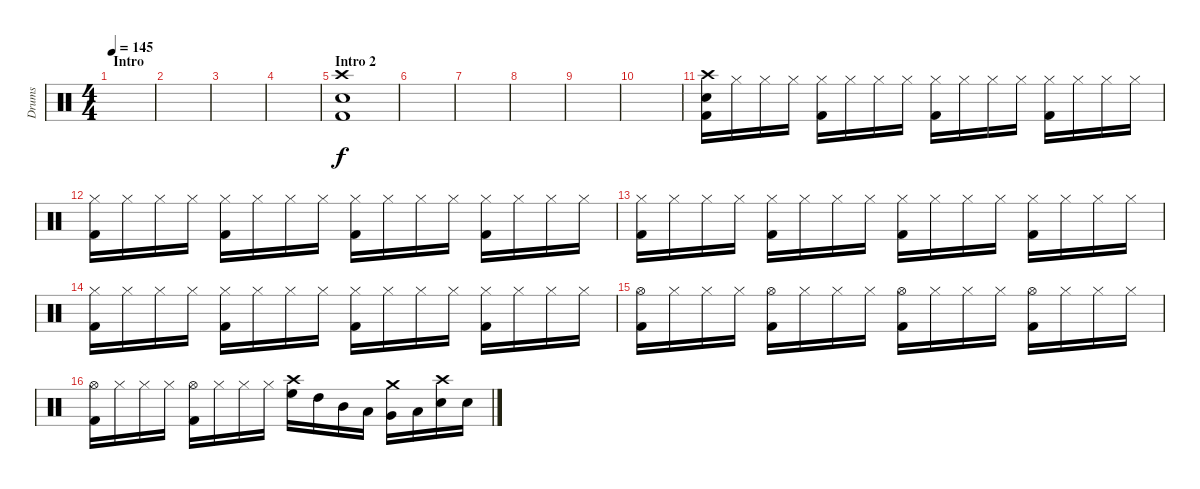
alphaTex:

\track ("Drums" "Drums") {instrument percussion}
\staff {score}
\articulation defaults
\ts (4 4)
\section ("" "Intro")
\tempo 145
\tempo 120
\tempo 145
\clef neutral
\ks c
|
|
|
|
\section ("" "Intro 2")
("Crash high (hit)" "Electric Snare (hit)" "Kick (hit) 2").1 |
|
|
|
|
|
("Crash high (hit)" "Electric Snare (hit)" "Kick (hit) 2").16 "Hi-Hat (closed)".16 "Hi-Hat (closed)".16 "Hi-Hat (closed)".16 ("Hi-Hat (closed)" "Kick (hit) 2").16 "Hi-Hat (closed)".16 "Hi-Hat (closed)".16 "Hi-Hat (closed)".16 ("Hi-Hat (closed)" "Kick (hit) 2").16 "Hi-Hat (closed)".16 "Hi-Hat (closed)".16 "Hi-Hat (closed)".16 ("Hi-Hat (closed)" "Kick (hit) 2").16 "Hi-Hat (closed)".16 "Hi-Hat (closed)".16 "Hi-Hat (closed)".16 |
("Hi-Hat (closed)" "Kick (hit) 2").16 "Hi-Hat (closed)".16 "Hi-Hat (closed)".16 "Hi-Hat (closed)".16 ("Hi-Hat (closed)" "Kick (hit) 2").16 "Hi-Hat (closed)".16 "Hi-Hat (closed)".16 "Hi-Hat (closed)".16 ("Hi-Hat (closed)" "Kick (hit) 2").16 "Hi-Hat (closed)".16 "Hi-Hat (closed)".16 "Hi-Hat (closed)".16 ("Hi-Hat (closed)" "Kick (hit) 2").16 "Hi-Hat (closed)".16 "Hi-Hat (closed)".16 "Hi-Hat (closed)".16 |
("Hi-Hat (closed)" "Kick (hit) 2").16 "Hi-Hat (closed)".16 "Hi-Hat (closed)".16 "Hi-Hat (closed)".16 ("Hi-Hat (closed)" "Kick (hit) 2").16 "Hi-Hat (closed)".16 "Hi-Hat (closed)".16 "Hi-Hat (closed)".16 ("Hi-Hat (closed)" "Kick (hit) 2").16 "Hi-Hat (closed)".16 "Hi-Hat (closed)".16 "Hi-Hat (closed)".16 ("Hi-Hat (closed)" "Kick (hit) 2").16 "Hi-Hat (closed)".16 "Hi-Hat (closed)".16 "Hi-Hat (closed)".16 |
("Hi-Hat (closed)" "Kick (hit) 2").16 "Hi-Hat (closed)".16 "Hi-Hat (closed)".16 "Hi-Hat (closed)".16 ("Hi-Hat (closed)" "Kick (hit) 2").16 "Hi-Hat (closed)".16 "Hi-Hat (closed)".16 "Hi-Hat (closed)".16 ("Hi-Hat (closed)" "Kick (hit) 2").16 "Hi-Hat (closed)".16 "Hi-Hat (closed)".16 "Hi-Hat (closed)".16 ("Hi-Hat (closed)" "Kick (hit) 2").16 "Hi-Hat (closed)".16 "Hi-Hat (closed)".16 "Hi-Hat (closed)".16 |
("Hi-Hat (open)" "Kick (hit) 2").16 "Hi-Hat (closed)".16 "Hi-Hat (closed)".16 "Hi-Hat (closed)".16 ("Hi-Hat (open)" "Kick (hit) 2").16 "Hi-Hat (closed)".16 "Hi-Hat (closed)".16 "Hi-Hat (closed)".16 ("Hi-Hat (open)" "Kick (hit) 2").16 "Hi-Hat (closed)".16 "Hi-Hat (closed)".16 "Hi-Hat (closed)".16 ("Hi-Hat (open)" "Kick (hit) 2").16 "Hi-Hat (closed)".16 "Hi-Hat (closed)".16 "Hi-Hat (closed)".16 |
("Hi-Hat (open)" "Kick (hit) 2").16 "Hi-Hat (closed)".16 "Hi-Hat (closed)".16 "Hi-Hat (closed)".16 ("Hi-Hat (open)" "Kick (hit) 2").16 "Hi-Hat (closed)".16 "Hi-Hat (closed)".16 "Hi-Hat (closed)".16 ("Crash high (hit)" "High Floor Tom (hit)").16 "High Tom (hit)".16 "Mid Tom (hit)".16 "Low Tom (hit)".16 ("Crash medium (hit)" "Very Low Tom (hit)").16 "Low Floor Tom (hit)".16 ("Crash high (hit)" "Electric Snare (hit)").16 "Electric Snare (hit)".16
